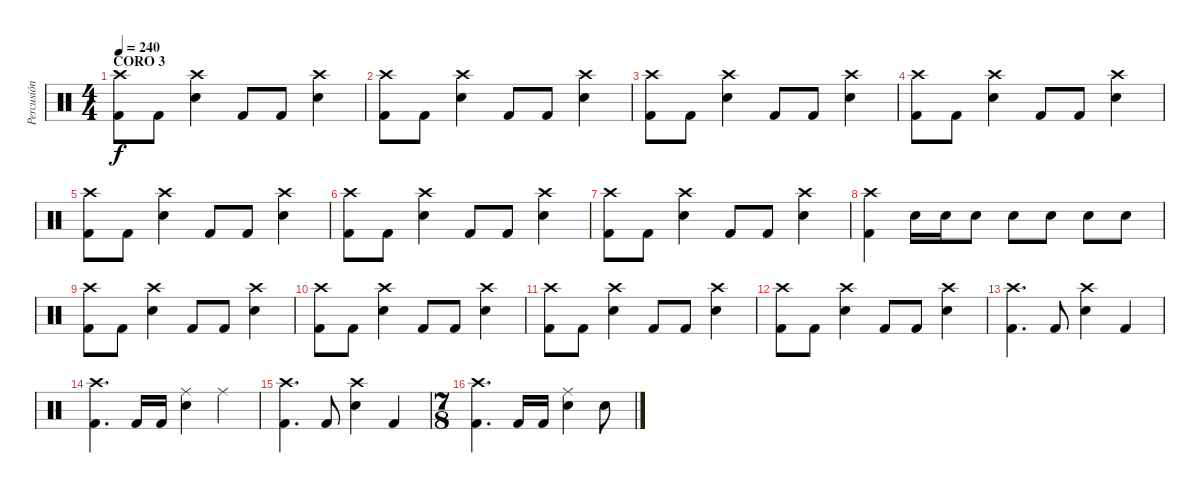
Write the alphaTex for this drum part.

\track ("Percusión" "Percusión") {instrument percussion}
\staff {score}
\articulation defaults
\ts (4 4)
\section ("" "CORO 3")
\tempo 240
\clef neutral
\ks c
("Crash high (hit)" "Kick (hit) 2").8{dy f} "Kick (hit) 2".8 ("Crash high (hit)" "Electric Snare (hit)").4 "Kick (hit) 2".8 "Kick (hit) 2".8 ("Crash high (hit)" "Electric Snare (hit)").4 |
("Crash high (hit)" "Kick (hit) 2").8 "Kick (hit) 2".8 ("Crash high (hit)" "Electric Snare (hit)").4 "Kick (hit) 2".8 "Kick (hit) 2".8 ("Crash high (hit)" "Electric Snare (hit)").4 |
("Crash high (hit)" "Kick (hit) 2").8 "Kick (hit) 2".8 ("Crash high (hit)" "Electric Snare (hit)").4 "Kick (hit) 2".8 "Kick (hit) 2".8 ("Crash high (hit)" "Electric Snare (hit)").4 |
("Crash high (hit)" "Kick (hit) 2").8 "Kick (hit) 2".8 ("Crash high (hit)" "Electric Snare (hit)").4 "Kick (hit) 2".8 "Kick (hit) 2".8 ("Crash high (hit)" "Electric Snare (hit)").4 |
("Crash high (hit)" "Kick (hit) 2").8 "Kick (hit) 2".8 ("Crash high (hit)" "Electric Snare (hit)").4 "Kick (hit) 2".8 "Kick (hit) 2".8 ("Crash high (hit)" "Electric Snare (hit)").4 |
("Crash high (hit)" "Kick (hit) 2").8 "Kick (hit) 2".8 ("Crash high (hit)" "Electric Snare (hit)").4 "Kick (hit) 2".8 "Kick (hit) 2".8 ("Crash high (hit)" "Electric Snare (hit)").4 |
("Crash high (hit)" "Kick (hit) 2").8 "Kick (hit) 2".8 ("Crash high (hit)" "Electric Snare (hit)").4 "Kick (hit) 2".8 "Kick (hit) 2".8 ("Crash high (hit)" "Electric Snare (hit)").4 |
("Crash high (hit)" "Kick (hit) 2").4 "Electric Snare (hit)".16 "Electric Snare (hit)".16 "Electric Snare (hit)".8 "Electric Snare (hit)".8 "Electric Snare (hit)".8 "Electric Snare (hit)".8 "Electric Snare (hit)".8 |
("Crash high (hit)" "Kick (hit) 2").8 "Kick (hit) 2".8 ("Crash high (hit)" "Electric Snare (hit)").4 "Kick (hit) 2".8 "Kick (hit) 2".8 ("Crash high (hit)" "Electric Snare (hit)").4 |
("Crash high (hit)" "Kick (hit) 2").8 "Kick (hit) 2".8 ("Crash high (hit)" "Electric Snare (hit)").4 "Kick (hit) 2".8 "Kick (hit) 2".8 ("Crash high (hit)" "Electric Snare (hit)").4 |
("Crash high (hit)" "Kick (hit) 2").8 "Kick (hit) 2".8 ("Crash high (hit)" "Electric Snare (hit)").4 "Kick (hit) 2".8 "Kick (hit) 2".8 ("Crash high (hit)" "Electric Snare (hit)").4 |
("Crash high (hit)" "Kick (hit) 2").8 "Kick (hit) 2".8 ("Crash high (hit)" "Electric Snare (hit)").4 "Kick (hit) 2".8 "Kick (hit) 2".8 ("Crash high (hit)" "Electric Snare (hit)").4 |
("Crash high (hit)" "Kick (hit) 2").4{d} "Kick (hit) 2".8 ("Crash high (hit)" "Electric Snare (hit)").4 "Kick (hit) 2".4 |
("Crash high (hit)" "Kick (hit) 2").4{d} "Kick (hit) 2".16 "Kick (hit) 2".16 ("Ride (middle)" "Electric Snare (hit)").4 "Ride (middle)".4 |
("Crash high (hit)" "Kick (hit) 2").4{d} "Kick (hit) 2".8 ("Crash high (hit)" "Electric Snare (hit)").4 "Kick (hit) 2".4 |
\ts (7 8)
("Crash high (hit)" "Kick (hit) 2").4{d} "Kick (hit) 2".16 "Kick (hit) 2".16 ("Ride (middle)" "Electric Snare (hit)").4 "Electric Snare (hit)".8
